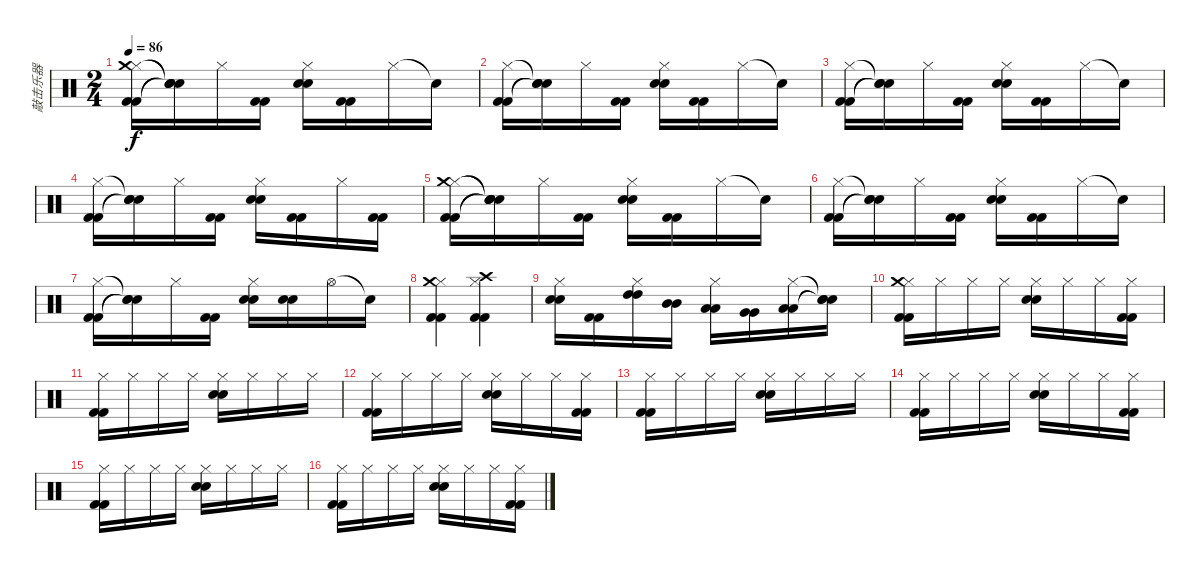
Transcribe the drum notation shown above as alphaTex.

\track ("敲击乐器" "敲击乐器") {instrument percussion}
\staff {score}
\articulation defaults
\ts (2 4)
\tempo 86
\clef neutral
\ks c
("Hi-Hat (closed)" "Crash medium (hit)" "Kick (hit) 2" "Kick (hit) 2").16{dy f} ("Snare (hit)"{t} "Snare (hit)"{t} "Snare (hit)"{t} "Snare (hit)"{t}).16 "Hi-Hat (closed)".16 ("Kick (hit) 2" "Kick (hit) 2").16 ("Hi-Hat (closed)" "Electric Snare (hit)" "Electric Snare (hit)").16 ("Kick (hit) 2" "Kick (hit) 2").16 "Hi-Hat (closed)".16 "Snare (hit)"{t}.16 |
("Hi-Hat (closed)" "Kick (hit) 2" "Kick (hit) 2").16 ("Snare (hit)"{t} "Snare (hit)"{t} "Snare (hit)"{t}).16 "Hi-Hat (closed)".16 ("Kick (hit) 2" "Kick (hit) 2").16 ("Hi-Hat (closed)" "Electric Snare (hit)" "Electric Snare (hit)").16 ("Kick (hit) 2" "Kick (hit) 2").16 "Hi-Hat (closed)".16 "Snare (hit)"{t}.16 |
("Hi-Hat (closed)" "Kick (hit) 2" "Kick (hit) 2").16 ("Snare (hit)"{t} "Snare (hit)"{t} "Snare (hit)"{t}).16 "Hi-Hat (closed)".16 ("Kick (hit) 2" "Kick (hit) 2").16 ("Hi-Hat (closed)" "Electric Snare (hit)" "Electric Snare (hit)").16 ("Kick (hit) 2" "Kick (hit) 2").16 "Hi-Hat (closed)".16 "Snare (hit)"{t}.16 |
("Hi-Hat (closed)" "Kick (hit) 2" "Kick (hit) 2").16 ("Snare (hit)"{t} "Snare (hit)"{t} "Snare (hit)"{t}).16 "Hi-Hat (closed)".16 ("Kick (hit) 2" "Kick (hit) 2").16 ("Hi-Hat (closed)" "Electric Snare (hit)" "Electric Snare (hit)").16 ("Kick (hit) 2" "Kick (hit) 2").16 "Hi-Hat (closed)".16 ("Kick (hit) 2" "Kick (hit) 2").16 |
("Hi-Hat (closed)" "Crash medium (hit)" "Kick (hit) 2" "Kick (hit) 2").16 ("Snare (hit)"{t} "Snare (hit)"{t} "Snare (hit)"{t} "Snare (hit)"{t}).16 "Hi-Hat (closed)".16 ("Kick (hit) 2" "Kick (hit) 2").16 ("Hi-Hat (closed)" "Electric Snare (hit)" "Electric Snare (hit)").16 ("Kick (hit) 2" "Kick (hit) 2").16 "Hi-Hat (closed)".16 "Snare (hit)"{t}.16 |
("Hi-Hat (closed)" "Kick (hit) 2" "Kick (hit) 2").16 ("Snare (hit)"{t} "Snare (hit)"{t} "Snare (hit)"{t}).16 "Hi-Hat (closed)".16 ("Kick (hit) 2" "Kick (hit) 2").16 ("Hi-Hat (closed)" "Electric Snare (hit)" "Electric Snare (hit)").16 ("Kick (hit) 2" "Kick (hit) 2").16 "Hi-Hat (closed)".16 "Snare (hit)"{t}.16 |
("Hi-Hat (closed)" "Kick (hit) 2" "Kick (hit) 2").16 ("Snare (hit)"{t} "Snare (hit)"{t} "Snare (hit)"{t}).16 "Hi-Hat (closed)".16 ("Kick (hit) 2" "Kick (hit) 2").16 ("Hi-Hat (closed)" "Electric Snare (hit)" "Electric Snare (hit)").16 ("Electric Snare (hit)" "Electric Snare (hit)").16 "Hi-Hat (open)".16 "Snare (hit)"{t}.16 |
("Hi-Hat (closed)" "Crash medium (hit)" "Kick (hit) 2" "Kick (hit) 2").4 ("Hi-Hat (closed)" "Crash high (hit)" "Kick (hit) 2" "Kick (hit) 2").4 |
("Hi-Hat (closed)" "Electric Snare (hit)" "Electric Snare (hit)").16 ("Kick (hit) 2" "Kick (hit) 2").16 ("Hi-Hat (closed)" "High Tom (hit)" "High Tom (hit)").16 ("Mid Tom (hit)" "Mid Tom (hit)").16 ("Hi-Hat (closed)" "Low Tom (hit)" "Low Tom (hit)").16 ("Very Low Tom (hit)" "Very Low Tom (hit)").16 ("Hi-Hat (closed)" "Low Floor Tom (hit)" "Low Floor Tom (hit)").16 ("Snare (hit)"{t} "Snare (hit)"{t} "Snare (hit)"{t}).16 |
("Hi-Hat (closed)" "Crash medium (hit)" "Kick (hit) 2" "Kick (hit) 2").16 "Hi-Hat (closed)".16 "Hi-Hat (closed)".16 "Hi-Hat (closed)".16 ("Hi-Hat (closed)" "Electric Snare (hit)" "Electric Snare (hit)").16 "Hi-Hat (closed)".16 "Hi-Hat (closed)".16 ("Hi-Hat (closed)" "Kick (hit) 2" "Kick (hit) 2").16 |
("Hi-Hat (closed)" "Kick (hit) 2" "Kick (hit) 2").16 "Hi-Hat (closed)".16 "Hi-Hat (closed)".16 "Hi-Hat (closed)".16 ("Hi-Hat (closed)" "Electric Snare (hit)" "Electric Snare (hit)").16 "Hi-Hat (closed)".16 "Hi-Hat (closed)".16 "Hi-Hat (closed)".16 |
("Hi-Hat (closed)" "Kick (hit) 2" "Kick (hit) 2").16 "Hi-Hat (closed)".16 "Hi-Hat (closed)".16 "Hi-Hat (closed)".16 ("Hi-Hat (closed)" "Electric Snare (hit)" "Electric Snare (hit)").16 "Hi-Hat (closed)".16 "Hi-Hat (closed)".16 ("Hi-Hat (closed)" "Kick (hit) 2" "Kick (hit) 2").16 |
("Hi-Hat (closed)" "Kick (hit) 2" "Kick (hit) 2").16 "Hi-Hat (closed)".16 "Hi-Hat (closed)".16 "Hi-Hat (closed)".16 ("Hi-Hat (closed)" "Electric Snare (hit)" "Electric Snare (hit)").16 "Hi-Hat (closed)".16 "Hi-Hat (closed)".16 "Hi-Hat (closed)".16 |
("Hi-Hat (closed)" "Kick (hit) 2" "Kick (hit) 2").16 "Hi-Hat (closed)".16 "Hi-Hat (closed)".16 "Hi-Hat (closed)".16 ("Hi-Hat (closed)" "Electric Snare (hit)" "Electric Snare (hit)").16 "Hi-Hat (closed)".16 "Hi-Hat (closed)".16 ("Hi-Hat (closed)" "Kick (hit) 2" "Kick (hit) 2").16 |
("Hi-Hat (closed)" "Kick (hit) 2" "Kick (hit) 2").16 "Hi-Hat (closed)".16 "Hi-Hat (closed)".16 "Hi-Hat (closed)".16 ("Hi-Hat (closed)" "Electric Snare (hit)" "Electric Snare (hit)").16 "Hi-Hat (closed)".16 "Hi-Hat (closed)".16 "Hi-Hat (closed)".16 |
("Hi-Hat (closed)" "Kick (hit) 2" "Kick (hit) 2").16 "Hi-Hat (closed)".16 "Hi-Hat (closed)".16 "Hi-Hat (closed)".16 ("Hi-Hat (closed)" "Electric Snare (hit)" "Electric Snare (hit)").16 "Hi-Hat (closed)".16 "Hi-Hat (closed)".16 ("Hi-Hat (closed)" "Kick (hit) 2" "Kick (hit) 2").16
